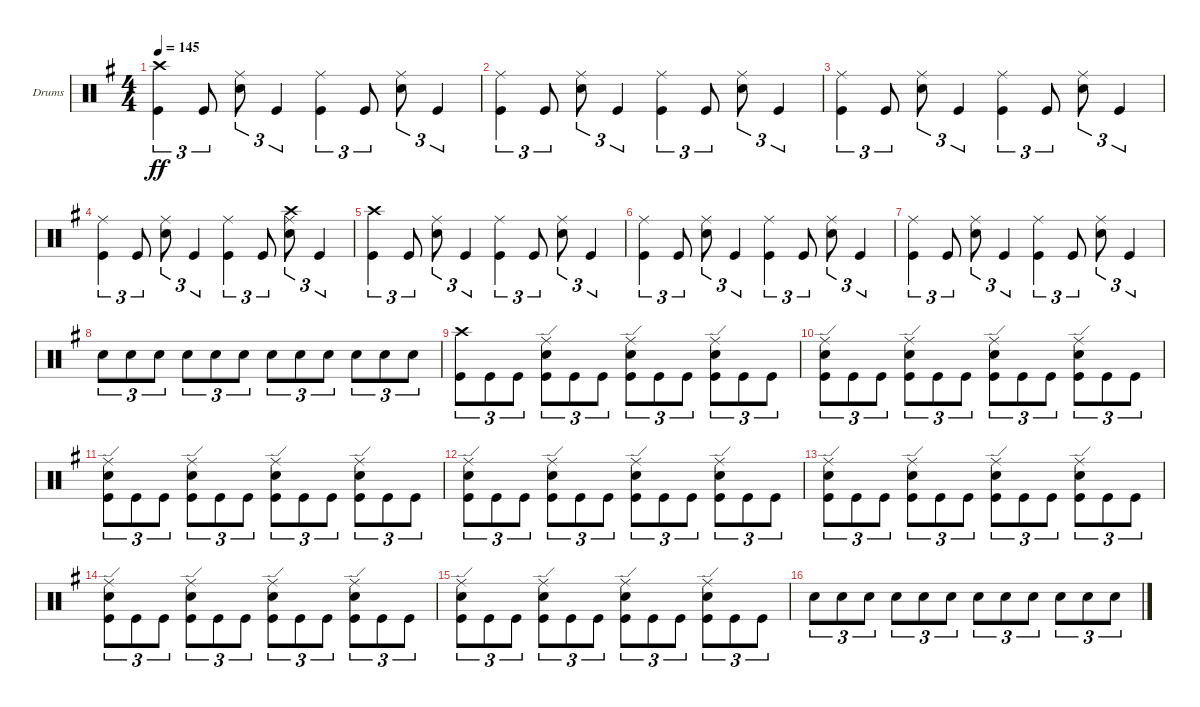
\bracketExtendMode groupsimilarinstruments
\firstSystemTrackNameOrientation horizontal
\otherSystemsTrackNameOrientation horizontal
\track ("Александр Манякин" "Drums") {instrument percussion}
\staff {score}
\articulation defaults
\ts (4 4)
\tempo 145
\clef neutral
\ks eminor
("Crash high (hit)" "Kick (hit)").4{tu (3 2) dy ff} "Kick (hit)".8{tu (3 2)} ("Ride (middle)" "Snare (hit) 2").8{tu (3 2)} "Kick (hit)".4{tu (3 2)} ("Ride (middle)" "Kick (hit)").4{tu (3 2)} "Kick (hit)".8{tu (3 2)} ("Ride (middle)" "Snare (hit) 2").8{tu (3 2)} "Kick (hit)".4{tu (3 2)} |
("Ride (middle)" "Kick (hit)").4{tu (3 2)} "Kick (hit)".8{tu (3 2)} ("Ride (middle)" "Snare (hit) 2").8{tu (3 2)} "Kick (hit)".4{tu (3 2)} ("Ride (middle)" "Kick (hit)").4{tu (3 2)} "Kick (hit)".8{tu (3 2)} ("Ride (middle)" "Snare (hit) 2").8{tu (3 2)} "Kick (hit)".4{tu (3 2)} |
("Ride (middle)" "Kick (hit)").4{tu (3 2)} "Kick (hit)".8{tu (3 2)} ("Ride (middle)" "Snare (hit) 2").8{tu (3 2)} "Kick (hit)".4{tu (3 2)} ("Ride (middle)" "Kick (hit)").4{tu (3 2)} "Kick (hit)".8{tu (3 2)} ("Ride (middle)" "Snare (hit) 2").8{tu (3 2)} "Kick (hit)".4{tu (3 2)} |
("Ride (middle)" "Kick (hit)").4{tu (3 2)} "Kick (hit)".8{tu (3 2)} ("Ride (middle)" "Snare (hit) 2").8{tu (3 2)} "Kick (hit)".4{tu (3 2)} ("Ride (middle)" "Kick (hit)").4{tu (3 2)} "Kick (hit)".8{tu (3 2)} ("Ride (middle)" "Snare (hit) 2" "Crash high (hit)").8{tu (3 2)} "Kick (hit)".4{tu (3 2)} |
("Crash high (hit)" "Kick (hit)").4{tu (3 2)} "Kick (hit)".8{tu (3 2)} ("Ride (middle)" "Snare (hit) 2").8{tu (3 2)} "Kick (hit)".4{tu (3 2)} ("Ride (middle)" "Kick (hit)").4{tu (3 2)} "Kick (hit)".8{tu (3 2)} ("Ride (middle)" "Snare (hit) 2").8{tu (3 2)} "Kick (hit)".4{tu (3 2)} |
("Ride (middle)" "Kick (hit)").4{tu (3 2)} "Kick (hit)".8{tu (3 2)} ("Ride (middle)" "Snare (hit) 2").8{tu (3 2)} "Kick (hit)".4{tu (3 2)} ("Ride (middle)" "Kick (hit)").4{tu (3 2)} "Kick (hit)".8{tu (3 2)} ("Ride (middle)" "Snare (hit) 2").8{tu (3 2)} "Kick (hit)".4{tu (3 2)} |
("Ride (middle)" "Kick (hit)").4{tu (3 2)} "Kick (hit)".8{tu (3 2)} ("Ride (middle)" "Snare (hit) 2").8{tu (3 2)} "Kick (hit)".4{tu (3 2)} ("Ride (middle)" "Kick (hit)").4{tu (3 2)} "Kick (hit)".8{tu (3 2)} ("Ride (middle)" "Snare (hit) 2").8{tu (3 2)} "Kick (hit)".4{tu (3 2)} |
"Snare (hit) 2".8{tu (3 2)} "Snare (hit) 2".8{tu (3 2)} "Snare (hit) 2".8{tu (3 2)} "Snare (hit) 2".8{tu (3 2)} "Snare (hit) 2".8{tu (3 2)} "Snare (hit) 2".8{tu (3 2)} "Snare (hit) 2".8{tu (3 2)} "Snare (hit) 2".8{tu (3 2)} "Snare (hit) 2".8{tu (3 2)} "Snare (hit) 2".8{tu (3 2)} "Snare (hit) 2".8{tu (3 2)} "Snare (hit) 2".8{tu (3 2)} |
("Crash high (hit)" "Kick (hit)").8{tu (3 2)} "Kick (hit)".8{tu (3 2)} "Kick (hit)".8{tu (3 2)} ("Ride (edge)" "Kick (hit)" "Snare (hit) 2").8{tu (3 2)} "Kick (hit)".8{tu (3 2)} "Kick (hit)".8{tu (3 2)} ("Ride (edge)" "Kick (hit)" "Snare (hit) 2").8{tu (3 2)} "Kick (hit)".8{tu (3 2)} "Kick (hit)".8{tu (3 2)} ("Ride (edge)" "Kick (hit)" "Snare (hit) 2").8{tu (3 2)} "Kick (hit)".8{tu (3 2)} "Kick (hit)".8{tu (3 2)} |
("Ride (edge)" "Kick (hit)" "Snare (hit) 2").8{tu (3 2)} "Kick (hit)".8{tu (3 2)} "Kick (hit)".8{tu (3 2)} ("Ride (edge)" "Kick (hit)" "Snare (hit) 2").8{tu (3 2)} "Kick (hit)".8{tu (3 2)} "Kick (hit)".8{tu (3 2)} ("Ride (edge)" "Kick (hit)" "Snare (hit) 2").8{tu (3 2)} "Kick (hit)".8{tu (3 2)} "Kick (hit)".8{tu (3 2)} ("Ride (edge)" "Kick (hit)" "Snare (hit) 2").8{tu (3 2)} "Kick (hit)".8{tu (3 2)} "Kick (hit)".8{tu (3 2)} |
("Ride (edge)" "Kick (hit)" "Snare (hit) 2").8{tu (3 2)} "Kick (hit)".8{tu (3 2)} "Kick (hit)".8{tu (3 2)} ("Ride (edge)" "Kick (hit)" "Snare (hit) 2").8{tu (3 2)} "Kick (hit)".8{tu (3 2)} "Kick (hit)".8{tu (3 2)} ("Ride (edge)" "Kick (hit)" "Snare (hit) 2").8{tu (3 2)} "Kick (hit)".8{tu (3 2)} "Kick (hit)".8{tu (3 2)} ("Ride (edge)" "Kick (hit)" "Snare (hit) 2").8{tu (3 2)} "Kick (hit)".8{tu (3 2)} "Kick (hit)".8{tu (3 2)} |
("Ride (edge)" "Kick (hit)" "Snare (hit) 2").8{tu (3 2)} "Kick (hit)".8{tu (3 2)} "Kick (hit)".8{tu (3 2)} ("Ride (edge)" "Kick (hit)" "Snare (hit) 2").8{tu (3 2)} "Kick (hit)".8{tu (3 2)} "Kick (hit)".8{tu (3 2)} ("Ride (edge)" "Kick (hit)" "Snare (hit) 2").8{tu (3 2)} "Kick (hit)".8{tu (3 2)} "Kick (hit)".8{tu (3 2)} ("Ride (edge)" "Kick (hit)" "Snare (hit) 2").8{tu (3 2)} "Kick (hit)".8{tu (3 2)} "Kick (hit)".8{tu (3 2)} |
("Ride (edge)" "Kick (hit)" "Snare (hit) 2").8{tu (3 2)} "Kick (hit)".8{tu (3 2)} "Kick (hit)".8{tu (3 2)} ("Ride (edge)" "Kick (hit)" "Snare (hit) 2").8{tu (3 2)} "Kick (hit)".8{tu (3 2)} "Kick (hit)".8{tu (3 2)} ("Ride (edge)" "Kick (hit)" "Snare (hit) 2").8{tu (3 2)} "Kick (hit)".8{tu (3 2)} "Kick (hit)".8{tu (3 2)} ("Ride (edge)" "Kick (hit)" "Snare (hit) 2").8{tu (3 2)} "Kick (hit)".8{tu (3 2)} "Kick (hit)".8{tu (3 2)} |
("Ride (edge)" "Kick (hit)" "Snare (hit) 2").8{tu (3 2)} "Kick (hit)".8{tu (3 2)} "Kick (hit)".8{tu (3 2)} ("Ride (edge)" "Kick (hit)" "Snare (hit) 2").8{tu (3 2)} "Kick (hit)".8{tu (3 2)} "Kick (hit)".8{tu (3 2)} ("Ride (edge)" "Kick (hit)" "Snare (hit) 2").8{tu (3 2)} "Kick (hit)".8{tu (3 2)} "Kick (hit)".8{tu (3 2)} ("Ride (edge)" "Kick (hit)" "Snare (hit) 2").8{tu (3 2)} "Kick (hit)".8{tu (3 2)} "Kick (hit)".8{tu (3 2)} |
("Ride (edge)" "Kick (hit)" "Snare (hit) 2").8{tu (3 2)} "Kick (hit)".8{tu (3 2)} "Kick (hit)".8{tu (3 2)} ("Ride (edge)" "Kick (hit)" "Snare (hit) 2").8{tu (3 2)} "Kick (hit)".8{tu (3 2)} "Kick (hit)".8{tu (3 2)} ("Ride (edge)" "Kick (hit)" "Snare (hit) 2").8{tu (3 2)} "Kick (hit)".8{tu (3 2)} "Kick (hit)".8{tu (3 2)} ("Ride (edge)" "Kick (hit)" "Snare (hit) 2").8{tu (3 2)} "Kick (hit)".8{tu (3 2)} "Kick (hit)".8{tu (3 2)} |
"Snare (hit) 2".8{tu (3 2)} "Snare (hit) 2".8{tu (3 2)} "Snare (hit) 2".8{tu (3 2)} "Snare (hit) 2".8{tu (3 2)} "Snare (hit) 2".8{tu (3 2)} "Snare (hit) 2".8{tu (3 2)} "Snare (hit) 2".8{tu (3 2)} "Snare (hit) 2".8{tu (3 2)} "Snare (hit) 2".8{tu (3 2)} "Snare (hit) 2".8{tu (3 2)} "Snare (hit) 2".8{tu (3 2)} "Snare (hit) 2".8{tu (3 2)}
